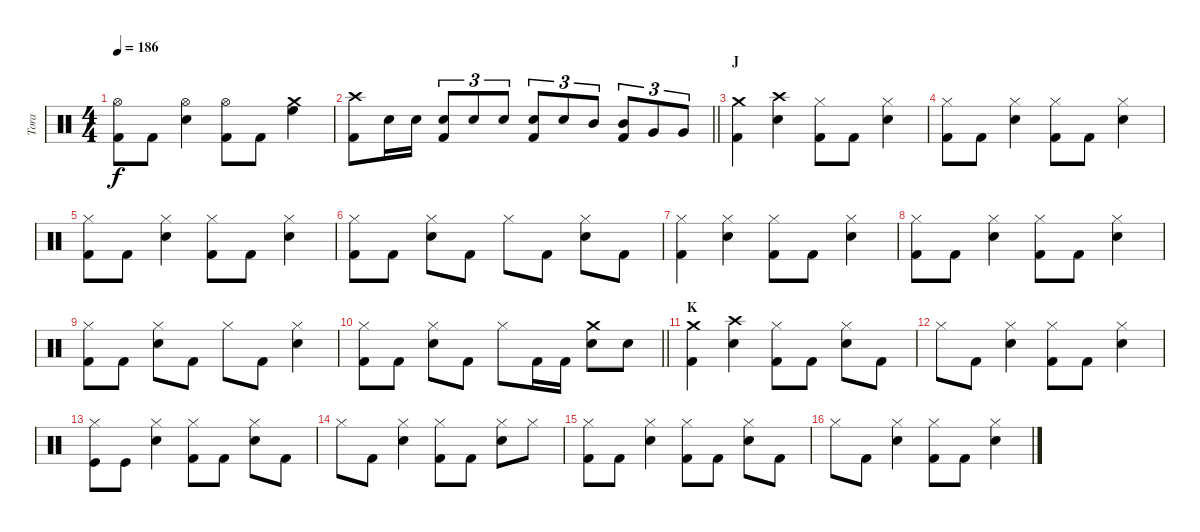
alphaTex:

\track ("Tora" "Tora") {instrument percussion}
\staff {score}
\articulation defaults
\ts (4 4)
\tempo 186
\clef neutral
\ks c
("Hi-Hat (open)" "Kick (hit) 2").8{dy f} "Kick (hit) 2".8 ("Hi-Hat (open)" "Electric Snare (hit)").4 ("Hi-Hat (open)" "Kick (hit) 2").8 "Kick (hit) 2".8 ("Crash medium (hit)" "High Floor Tom (hit)").4 |
\barLineRight lightlight
("Crash high (hit)" "Kick (hit) 2").8 "Electric Snare (hit)".16 "Electric Snare (hit)".16 ("Electric Snare (hit)" "Kick (hit) 2").8{tu (3 2)} "Electric Snare (hit)".8{tu (3 2)} "Electric Snare (hit)".8{tu (3 2)} ("Electric Snare (hit)" "Kick (hit) 2").8{tu (3 2)} "Electric Snare (hit)".8{tu (3 2)} "Mid Tom (hit)".8{tu (3 2)} ("Mid Tom (hit)" "Kick (hit) 2").8{tu (3 2)} "Very Low Tom (hit)".8{tu (3 2)} "Very Low Tom (hit)".8{tu (3 2)} |
\section ("" "J")
("Crash medium (hit)" "Kick (hit) 2").4 ("Crash high (hit)" "Electric Snare (hit)").4 ("Hi-Hat (closed)" "Kick (hit) 2").8 "Kick (hit) 2".8 ("Hi-Hat (closed)" "Electric Snare (hit)").4 |
("Hi-Hat (closed)" "Kick (hit) 2").8 "Kick (hit) 2".8 ("Hi-Hat (closed)" "Electric Snare (hit)").4 ("Hi-Hat (closed)" "Kick (hit) 2").8 "Kick (hit) 2".8 ("Hi-Hat (closed)" "Electric Snare (hit)").4 |
("Hi-Hat (closed)" "Kick (hit) 2").8 "Kick (hit) 2".8 ("Hi-Hat (closed)" "Electric Snare (hit)").4 ("Hi-Hat (closed)" "Kick (hit) 2").8 "Kick (hit) 2".8 ("Hi-Hat (closed)" "Electric Snare (hit)").4 |
("Hi-Hat (closed)" "Kick (hit) 2").8 "Kick (hit) 2".8 ("Hi-Hat (closed)" "Electric Snare (hit)").8 "Kick (hit) 2".8 "Hi-Hat (closed)".8 "Kick (hit) 2".8 ("Hi-Hat (closed)" "Electric Snare (hit)").8 "Kick (hit) 2".8 |
("Hi-Hat (closed)" "Kick (hit) 2").4 ("Hi-Hat (closed)" "Electric Snare (hit)").4 ("Hi-Hat (closed)" "Kick (hit) 2").8 "Kick (hit) 2".8 ("Hi-Hat (closed)" "Electric Snare (hit)").4 |
("Hi-Hat (closed)" "Kick (hit) 2").8 "Kick (hit) 2".8 ("Hi-Hat (closed)" "Electric Snare (hit)").4 ("Hi-Hat (closed)" "Kick (hit) 2").8 "Kick (hit) 2".8 ("Hi-Hat (closed)" "Electric Snare (hit)").4 |
("Hi-Hat (closed)" "Kick (hit) 2").8 "Kick (hit) 2".8 ("Hi-Hat (closed)" "Electric Snare (hit)").8 "Kick (hit) 2".8 "Hi-Hat (closed)".8 "Kick (hit) 2".8 ("Hi-Hat (closed)" "Electric Snare (hit)").4 |
\barLineRight lightlight
("Hi-Hat (closed)" "Kick (hit) 2").8 "Kick (hit) 2".8 ("Hi-Hat (closed)" "Electric Snare (hit)").8 "Kick (hit) 2".8 "Hi-Hat (closed)".8 "Kick (hit) 2".16 "Kick (hit) 2".16 ("Crash medium (hit)" "Electric Snare (hit)").8 "Electric Snare (hit)".8 |
\section ("" "K")
("Crash medium (hit)" "Kick (hit) 2").4 ("Crash high (hit)" "Electric Snare (hit)").4 ("Hi-Hat (closed)" "Kick (hit) 2").8 "Kick (hit) 2".8 ("Hi-Hat (closed)" "Electric Snare (hit)").8 "Kick (hit) 2".8 |
"Hi-Hat (closed)".8 "Kick (hit) 2".8 ("Hi-Hat (closed)" "Electric Snare (hit)").4 ("Hi-Hat (closed)" "Kick (hit) 2").8 "Kick (hit) 2".8 ("Hi-Hat (closed)" "Electric Snare (hit)").4 |
("Hi-Hat (closed)" "Kick (hit)").8 "Kick (hit)".8 ("Hi-Hat (closed)" "Electric Snare (hit)").4 ("Hi-Hat (closed)" "Kick (hit) 2").8 "Kick (hit) 2".8 ("Hi-Hat (closed)" "Electric Snare (hit)").8 "Kick (hit) 2".8 |
"Hi-Hat (closed)".8 "Kick (hit) 2".8 ("Hi-Hat (closed)" "Electric Snare (hit)").4 ("Hi-Hat (closed)" "Kick (hit) 2").8 "Kick (hit) 2".8 ("Hi-Hat (closed)" "Electric Snare (hit)").8 "Hi-Hat (closed)".8 |
("Hi-Hat (closed)" "Kick (hit) 2").8 "Kick (hit) 2".8 ("Hi-Hat (closed)" "Electric Snare (hit)").4 ("Hi-Hat (closed)" "Kick (hit) 2").8 "Kick (hit) 2".8 ("Hi-Hat (closed)" "Electric Snare (hit)").8 "Kick (hit) 2".8 |
"Hi-Hat (closed)".8 "Kick (hit) 2".8 ("Hi-Hat (closed)" "Electric Snare (hit)").4 ("Hi-Hat (closed)" "Kick (hit) 2").8 "Kick (hit) 2".8 ("Hi-Hat (closed)" "Electric Snare (hit)").4
